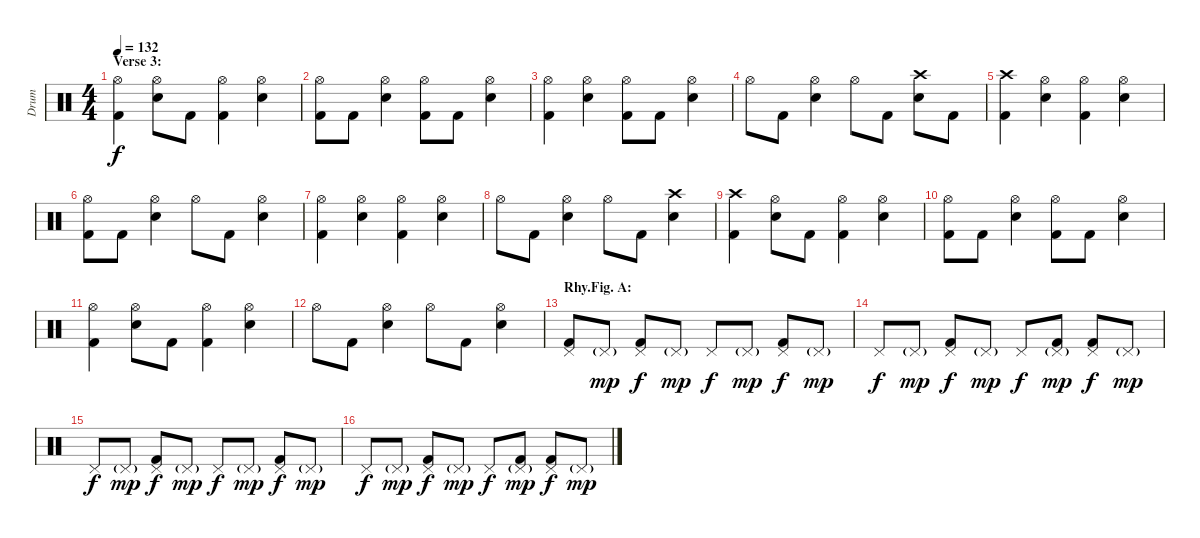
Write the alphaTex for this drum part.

\track ("Drum" "Drum") {instrument percussion}
\staff {score}
\articulation defaults
\ts (4 4)
\section ("" "Verse 3:")
\tempo 132
\clef neutral
\ks c
("Hi-Hat (open)" "Kick (hit) 2").4{dy f} ("Hi-Hat (open)" "Snare (hit) 2").8 "Kick (hit) 2".8 ("Hi-Hat (open)" "Kick (hit) 2").4 ("Hi-Hat (open)" "Snare (hit) 2").4 |
("Hi-Hat (open)" "Kick (hit) 2").8 "Kick (hit) 2".8 ("Hi-Hat (open)" "Snare (hit) 2").4 ("Hi-Hat (open)" "Kick (hit) 2").8 "Kick (hit) 2".8 ("Hi-Hat (open)" "Snare (hit) 2").4 |
("Hi-Hat (open)" "Kick (hit) 2").4 ("Hi-Hat (open)" "Snare (hit) 2").4 ("Hi-Hat (open)" "Kick (hit) 2").8 "Kick (hit) 2".8 ("Hi-Hat (open)" "Snare (hit) 2").4 |
"Hi-Hat (open)".8 "Kick (hit) 2".8 ("Hi-Hat (open)" "Snare (hit) 2").4 "Hi-Hat (open)".8 "Kick (hit) 2".8 ("Crash high (hit)" "Snare (hit) 2").8 "Kick (hit) 2".8 |
("Crash high (hit)" "Kick (hit) 2").4 ("Hi-Hat (open)" "Snare (hit) 2").4 ("Hi-Hat (open)" "Kick (hit) 2").4 ("Hi-Hat (open)" "Snare (hit) 2").4 |
("Hi-Hat (open)" "Kick (hit) 2").8 "Kick (hit) 2".8 ("Hi-Hat (open)" "Snare (hit) 2").4 "Hi-Hat (open)".8 "Kick (hit) 2".8 ("Hi-Hat (open)" "Snare (hit) 2").4 |
("Hi-Hat (open)" "Kick (hit) 2").4 ("Hi-Hat (open)" "Snare (hit) 2").4 ("Hi-Hat (open)" "Kick (hit) 2").4 ("Hi-Hat (open)" "Snare (hit) 2").4 |
"Hi-Hat (open)".8 "Kick (hit) 2".8 ("Hi-Hat (open)" "Snare (hit) 2").4 "Hi-Hat (open)".8 "Kick (hit) 2".8 ("Crash high (hit)" "Snare (hit) 2").4 |
("Crash high (hit)" "Kick (hit) 2").4 ("Hi-Hat (open)" "Snare (hit) 2").8 "Kick (hit) 2".8 ("Hi-Hat (open)" "Kick (hit) 2").4 ("Hi-Hat (open)" "Snare (hit) 2").4 |
("Hi-Hat (open)" "Kick (hit) 2").8 "Kick (hit) 2".8 ("Hi-Hat (open)" "Snare (hit) 2").4 ("Hi-Hat (open)" "Kick (hit) 2").8 "Kick (hit) 2".8 ("Hi-Hat (open)" "Snare (hit) 2").4 |
("Hi-Hat (open)" "Kick (hit) 2").4 ("Hi-Hat (open)" "Snare (hit) 2").8 "Kick (hit) 2".8 ("Hi-Hat (open)" "Kick (hit) 2").4 ("Hi-Hat (open)" "Snare (hit) 2").4 |
"Hi-Hat (open)".8 "Kick (hit) 2".8 ("Hi-Hat (open)" "Snare (hit) 2").4 "Hi-Hat (open)".8 "Kick (hit) 2".8 ("Hi-Hat (open)" "Snare (hit) 2").4 |
\section ("" "Rhy.Fig. A:")
("Pedal Hi-Hat (hit)" "Kick (hit) 2").8 "Pedal Hi-Hat (hit)"{g}.8{dy mp} ("Pedal Hi-Hat (hit)" "Kick (hit) 2").8{dy f} "Pedal Hi-Hat (hit)"{g}.8{dy mp} "Pedal Hi-Hat (hit)".8{dy f} "Pedal Hi-Hat (hit)"{g}.8{dy mp} ("Pedal Hi-Hat (hit)" "Kick (hit) 2").8{dy f} "Pedal Hi-Hat (hit)"{g}.8{dy mp} |
"Pedal Hi-Hat (hit)".8{dy f} "Pedal Hi-Hat (hit)"{g}.8{dy mp} ("Pedal Hi-Hat (hit)" "Kick (hit) 2").8{dy f} "Pedal Hi-Hat (hit)"{g}.8{dy mp} "Pedal Hi-Hat (hit)".8{dy f} ("Pedal Hi-Hat (hit)"{g} "Kick (hit) 2").8{dy mp} ("Pedal Hi-Hat (hit)" "Kick (hit) 2").8{dy f} "Pedal Hi-Hat (hit)"{g}.8{dy mp} |
"Pedal Hi-Hat (hit)".8{dy f} "Pedal Hi-Hat (hit)"{g}.8{dy mp} ("Pedal Hi-Hat (hit)" "Kick (hit) 2").8{dy f} "Pedal Hi-Hat (hit)"{g}.8{dy mp} "Pedal Hi-Hat (hit)".8{dy f} "Pedal Hi-Hat (hit)"{g}.8{dy mp} ("Pedal Hi-Hat (hit)" "Kick (hit) 2").8{dy f} "Pedal Hi-Hat (hit)"{g}.8{dy mp} |
"Pedal Hi-Hat (hit)".8{dy f} "Pedal Hi-Hat (hit)"{g}.8{dy mp} ("Pedal Hi-Hat (hit)" "Kick (hit) 2").8{dy f} "Pedal Hi-Hat (hit)"{g}.8{dy mp} "Pedal Hi-Hat (hit)".8{dy f} ("Pedal Hi-Hat (hit)"{g} "Kick (hit) 2").8{dy mp} ("Pedal Hi-Hat (hit)" "Kick (hit) 2").8{dy f} "Pedal Hi-Hat (hit)"{g}.8{dy mp}
